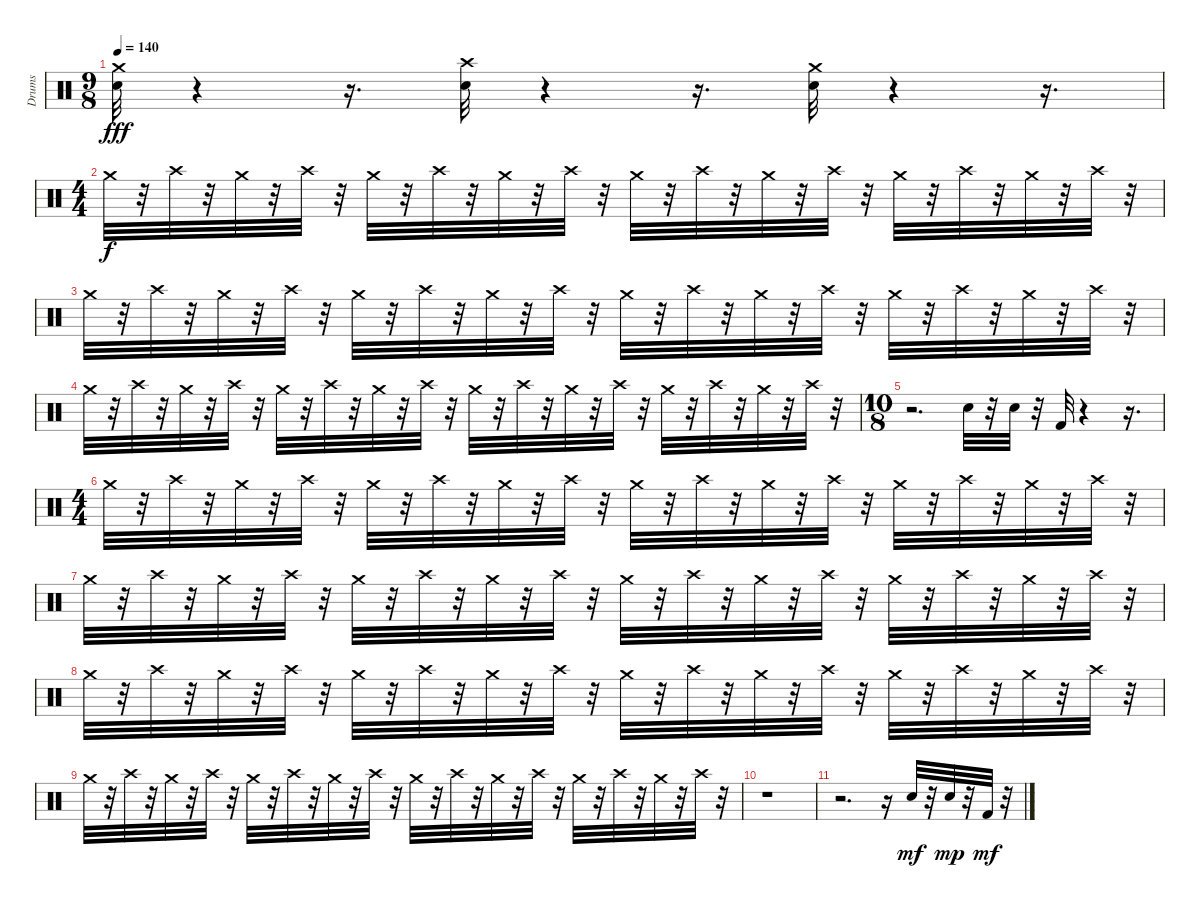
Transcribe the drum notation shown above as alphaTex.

\track ("Drums" "Drums") {instrument percussion}
\staff {score}
\articulation defaults
\ts (9 8)
\tempo 140
\clef neutral
\ks c
("Crash medium (hit)" "Snare (hit) 2").32{dy fff} r.4 r.16{d} ("Crash high (hit)" "Snare (hit) 2").32 r.4 r.16{d} ("Crash medium (hit)" "Snare (hit) 2").32 r.4 r.16{d} |
\ts (4 4)
"Crash medium (hit)".32{dy f volume 12} r.32 "Crash high (hit)".32{volume 12} r.32 "Crash medium (hit)".32 r.32 "Crash high (hit)".32 r.32 "Crash medium (hit)".32 r.32 "Crash high (hit)".32 r.32 "Crash medium (hit)".32{volume 13} r.32 "Crash high (hit)".32{volume 13} r.32 "Crash medium (hit)".32{volume 13} r.32 "Crash high (hit)".32{volume 13} r.32 "Crash medium (hit)".32{volume 13} r.32 "Crash high (hit)".32{volume 14} r.32 "Crash medium (hit)".32 r.32 "Crash high (hit)".32{volume 14} r.32 "Crash medium (hit)".32{volume 14} r.32 "Crash high (hit)".32{volume 14} r.32 |
"Crash medium (hit)".32{volume 14} r.32 "Crash high (hit)".32{volume 14} r.32 "Crash medium (hit)".32{volume 14} r.32 "Crash high (hit)".32{volume 15} r.32 "Crash medium (hit)".32{volume 15} r.32 "Crash high (hit)".32{volume 15} r.32 "Crash medium (hit)".32{volume 15} r.32 "Crash high (hit)".32{volume 16} r.32 "Crash medium (hit)".32 r.32 "Crash high (hit)".32{volume 16} r.32 "Crash medium (hit)".32{volume 15} r.32 "Crash high (hit)".32{volume 15} r.32 "Crash medium (hit)".32{volume 14} r.32 "Crash high (hit)".32{volume 14} r.32 "Crash medium (hit)".32{volume 14} r.32 "Crash high (hit)".32{volume 13} r.32 |
"Crash medium (hit)".32{volume 13} r.32 "Crash high (hit)".32 r.32 "Crash medium (hit)".32{volume 13} r.32 "Crash high (hit)".32{volume 13} r.32 "Crash medium (hit)".32{volume 13} r.32 "Crash high (hit)".32{volume 12} r.32 "Crash medium (hit)".32 r.32 "Crash high (hit)".32{volume 12} r.32 "Crash medium (hit)".32 r.32 "Crash high (hit)".32 r.32 "Crash medium (hit)".32{volume 12} r.32 "Crash high (hit)".32{volume 12} r.32 "Crash medium (hit)".32{volume 12} r.32 "Crash high (hit)".32 r.32 "Crash medium (hit)".32{volume 12} r.32 "Crash high (hit)".32 r.32 |
\ts (10 8)
r.2{d} "Snare (hit) 2".32{volume 16} r.32 "Snare (hit) 2".32 r.32 "Kick (hit) 2".32 r.4 r.16{d} |
\ts (4 4)
"Crash medium (hit)".32{volume 12} r.32 "Crash high (hit)".32 r.32 "Crash medium (hit)".32{volume 12} r.32 "Crash high (hit)".32{volume 12} r.32 "Crash medium (hit)".32 r.32 "Crash high (hit)".32 r.32 "Crash medium (hit)".32 r.32 "Crash high (hit)".32 r.32 "Crash medium (hit)".32 r.32 "Crash high (hit)".32 r.32 "Crash medium (hit)".32{volume 13} r.32 "Crash high (hit)".32 r.32 "Crash medium (hit)".32 r.32 "Crash high (hit)".32{volume 13} r.32 "Crash medium (hit)".32 r.32 "Crash high (hit)".32{volume 13} r.32 |
"Crash medium (hit)".32 r.32 "Crash high (hit)".32{volume 13} r.32 "Crash medium (hit)".32 r.32 "Crash high (hit)".32{volume 13} r.32 "Crash medium (hit)".32 r.32 "Crash high (hit)".32{volume 13} r.32 "Crash medium (hit)".32{volume 13} r.32 "Crash high (hit)".32{volume 14} r.32 "Crash medium (hit)".32{volume 14} r.32 "Crash high (hit)".32{volume 14} r.32 "Crash medium (hit)".32{volume 14} r.32 "Crash high (hit)".32{volume 14} r.32 "Crash medium (hit)".32{volume 14} r.32 "Crash high (hit)".32{volume 14} r.32 "Crash medium (hit)".32{volume 15} r.32 "Crash high (hit)".32{volume 15} r.32 |
"Crash medium (hit)".32{volume 16} r.32 "Crash high (hit)".32{volume 16} r.32 "Crash medium (hit)".32{volume 15} r.32 "Crash high (hit)".32{volume 15} r.32 "Crash medium (hit)".32{volume 15} r.32 "Crash high (hit)".32{volume 15} r.32 "Crash medium (hit)".32 r.32 "Crash high (hit)".32{volume 14} r.32 "Crash medium (hit)".32{volume 14} r.32 "Crash high (hit)".32{volume 14} r.32 "Crash medium (hit)".32{volume 14} r.32 "Crash high (hit)".32{volume 14} r.32 "Crash medium (hit)".32{volume 14} r.32 "Crash high (hit)".32 r.32 "Crash medium (hit)".32{volume 14} r.32 "Crash high (hit)".32{volume 14} r.32 |
"Crash medium (hit)".32{volume 14} r.32 "Crash high (hit)".32{volume 13} r.32 "Crash medium (hit)".32{volume 13} r.32 "Crash high (hit)".32{volume 13} r.32 "Crash medium (hit)".32 r.32 "Crash high (hit)".32{volume 13} r.32 "Crash medium (hit)".32 r.32 "Crash high (hit)".32{volume 13} r.32 "Crash medium (hit)".32{volume 13} r.32 "Crash high (hit)".32{volume 12} r.32 "Crash medium (hit)".32{volume 12} r.32 "Crash high (hit)".32{volume 12} r.32 "Crash medium (hit)".32{volume 12} r.32 "Crash high (hit)".32{volume 12} r.32 "Crash medium (hit)".32{volume 12} r.32 "Crash high (hit)".32{volume 16} r.32 |
r.1 |
r.2{d} r.16 "Snare (hit) 2".32{dy mf} r.32 "Snare (hit) 2".32{dy mp} r.32 "Kick (hit) 2".32{dy mf} r.32
